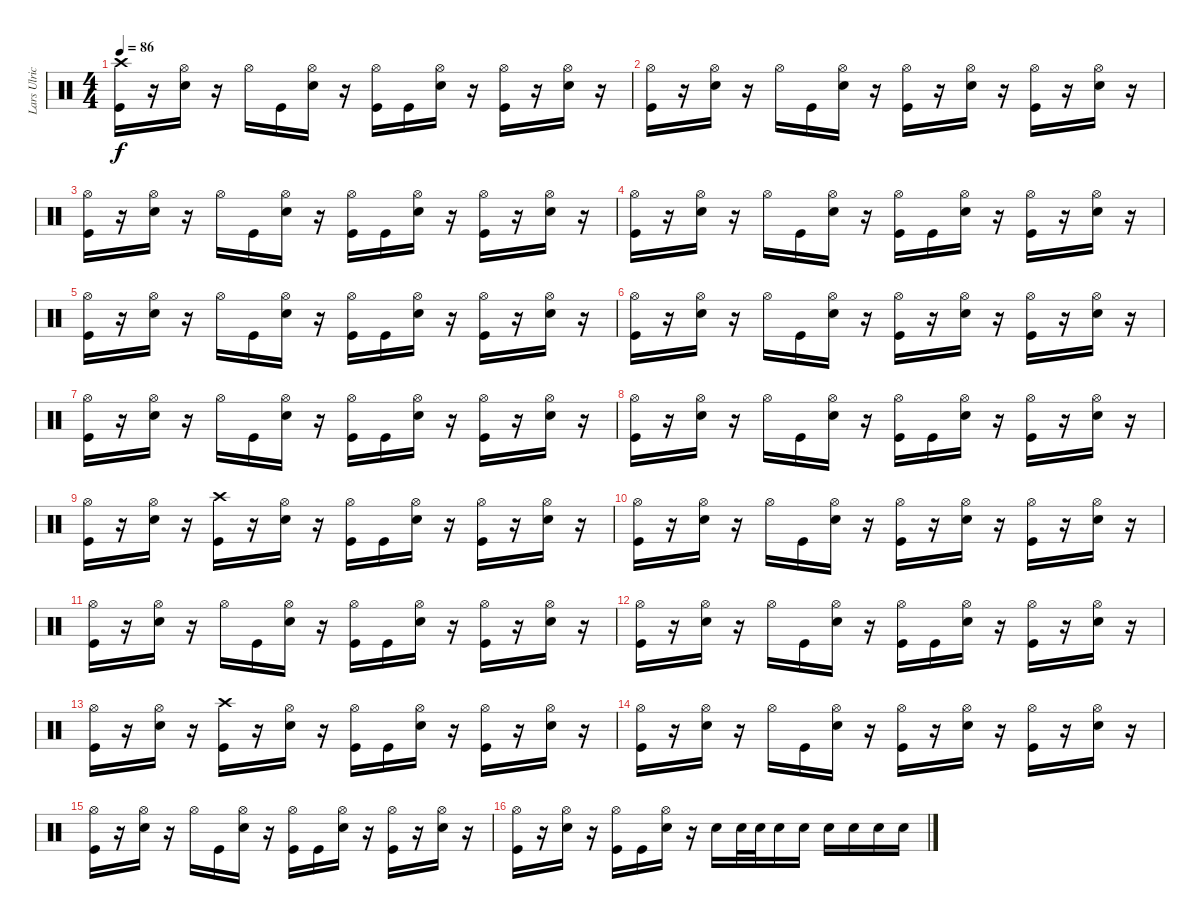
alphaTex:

\track ("Lars Ulrich" "Lars Ulric") {instrument percussion}
\staff {score}
\articulation defaults
\ts (4 4)
\tempo 86
\clef neutral
\ks c
("Crash high (hit)" "Kick (hit)").16{dy f} r.16 ("Hi-Hat (open)" "Snare (hit) 2").16 r.16 "Hi-Hat (open)".16 "Kick (hit)".16 ("Hi-Hat (open)" "Snare (hit) 2").16 r.16 ("Hi-Hat (open)" "Kick (hit)").16 "Kick (hit)".16 ("Hi-Hat (open)" "Snare (hit) 2").16 r.16 ("Hi-Hat (open)" "Kick (hit)").16 r.16 ("Hi-Hat (open)" "Snare (hit) 2").16 r.16 |
("Hi-Hat (open)" "Kick (hit)").16 r.16 ("Hi-Hat (open)" "Snare (hit) 2").16 r.16 "Hi-Hat (open)".16 "Kick (hit)".16 ("Hi-Hat (open)" "Snare (hit) 2").16 r.16 ("Hi-Hat (open)" "Kick (hit)").16 r.16 ("Hi-Hat (open)" "Snare (hit) 2").16 r.16 ("Hi-Hat (open)" "Kick (hit)").16 r.16 ("Hi-Hat (open)" "Snare (hit) 2").16 r.16 |
("Hi-Hat (open)" "Kick (hit)").16 r.16 ("Hi-Hat (open)" "Snare (hit) 2").16 r.16 "Hi-Hat (open)".16 "Kick (hit)".16 ("Hi-Hat (open)" "Snare (hit) 2").16 r.16 ("Hi-Hat (open)" "Kick (hit)").16 "Kick (hit)".16 ("Hi-Hat (open)" "Snare (hit) 2").16 r.16 ("Hi-Hat (open)" "Kick (hit)").16 r.16 ("Hi-Hat (open)" "Snare (hit) 2").16 r.16 |
("Hi-Hat (open)" "Kick (hit)").16 r.16 ("Hi-Hat (open)" "Snare (hit) 2").16 r.16 "Hi-Hat (open)".16 "Kick (hit)".16 ("Hi-Hat (open)" "Snare (hit) 2").16 r.16 ("Hi-Hat (open)" "Kick (hit)").16 "Kick (hit)".16 ("Hi-Hat (open)" "Snare (hit) 2").16 r.16 ("Hi-Hat (open)" "Kick (hit)").16 r.16 ("Hi-Hat (open)" "Snare (hit) 2").16 r.16 |
("Hi-Hat (open)" "Kick (hit)").16 r.16 ("Hi-Hat (open)" "Snare (hit) 2").16 r.16 "Hi-Hat (open)".16 "Kick (hit)".16 ("Hi-Hat (open)" "Snare (hit) 2").16 r.16 ("Hi-Hat (open)" "Kick (hit)").16 "Kick (hit)".16 ("Hi-Hat (open)" "Snare (hit) 2").16 r.16 ("Hi-Hat (open)" "Kick (hit)").16 r.16 ("Hi-Hat (open)" "Snare (hit) 2").16 r.16 |
("Hi-Hat (open)" "Kick (hit)").16 r.16 ("Hi-Hat (open)" "Snare (hit) 2").16 r.16 "Hi-Hat (open)".16 "Kick (hit)".16 ("Hi-Hat (open)" "Snare (hit) 2").16 r.16 ("Hi-Hat (open)" "Kick (hit)").16 r.16 ("Hi-Hat (open)" "Snare (hit) 2").16 r.16 ("Hi-Hat (open)" "Kick (hit)").16 r.16 ("Hi-Hat (open)" "Snare (hit) 2").16 r.16 |
("Hi-Hat (open)" "Kick (hit)").16 r.16 ("Hi-Hat (open)" "Snare (hit) 2").16 r.16 "Hi-Hat (open)".16 "Kick (hit)".16 ("Hi-Hat (open)" "Snare (hit) 2").16 r.16 ("Hi-Hat (open)" "Kick (hit)").16 "Kick (hit)".16 ("Hi-Hat (open)" "Snare (hit) 2").16 r.16 ("Hi-Hat (open)" "Kick (hit)").16 r.16 ("Hi-Hat (open)" "Snare (hit) 2").16 r.16 |
("Hi-Hat (open)" "Kick (hit)").16 r.16 ("Hi-Hat (open)" "Snare (hit) 2").16 r.16 "Hi-Hat (open)".16 "Kick (hit)".16 ("Hi-Hat (open)" "Snare (hit) 2").16 r.16 ("Hi-Hat (open)" "Kick (hit)").16 "Kick (hit)".16 ("Hi-Hat (open)" "Snare (hit) 2").16 r.16 ("Hi-Hat (open)" "Kick (hit)").16 r.16 ("Hi-Hat (open)" "Snare (hit) 2").16 r.16 |
("Hi-Hat (open)" "Kick (hit)").16 r.16 ("Hi-Hat (open)" "Snare (hit) 2").16 r.16 ("Crash high (hit)" "Kick (hit)").16 r.16 ("Hi-Hat (open)" "Snare (hit) 2").16 r.16 ("Hi-Hat (open)" "Kick (hit)").16 "Kick (hit)".16 ("Hi-Hat (open)" "Snare (hit) 2").16 r.16 ("Hi-Hat (open)" "Kick (hit)").16 r.16 ("Hi-Hat (open)" "Snare (hit) 2").16 r.16 |
("Hi-Hat (open)" "Kick (hit)").16 r.16 ("Hi-Hat (open)" "Snare (hit) 2").16 r.16 "Hi-Hat (open)".16 "Kick (hit)".16 ("Hi-Hat (open)" "Snare (hit) 2").16 r.16 ("Hi-Hat (open)" "Kick (hit)").16 r.16 ("Hi-Hat (open)" "Snare (hit) 2").16 r.16 ("Hi-Hat (open)" "Kick (hit)").16 r.16 ("Hi-Hat (open)" "Snare (hit) 2").16 r.16 |
("Hi-Hat (open)" "Kick (hit)").16 r.16 ("Hi-Hat (open)" "Snare (hit) 2").16 r.16 "Hi-Hat (open)".16 "Kick (hit)".16 ("Hi-Hat (open)" "Snare (hit) 2").16 r.16 ("Hi-Hat (open)" "Kick (hit)").16 "Kick (hit)".16 ("Hi-Hat (open)" "Snare (hit) 2").16 r.16 ("Hi-Hat (open)" "Kick (hit)").16 r.16 ("Hi-Hat (open)" "Snare (hit) 2").16 r.16 |
("Hi-Hat (open)" "Kick (hit)").16 r.16 ("Hi-Hat (open)" "Snare (hit) 2").16 r.16 "Hi-Hat (open)".16 "Kick (hit)".16 ("Hi-Hat (open)" "Snare (hit) 2").16 r.16 ("Hi-Hat (open)" "Kick (hit)").16 "Kick (hit)".16 ("Hi-Hat (open)" "Snare (hit) 2").16 r.16 ("Hi-Hat (open)" "Kick (hit)").16 r.16 ("Hi-Hat (open)" "Snare (hit) 2").16 r.16 |
("Hi-Hat (open)" "Kick (hit)").16 r.16 ("Hi-Hat (open)" "Snare (hit) 2").16 r.16 ("Crash high (hit)" "Kick (hit)").16 r.16 ("Hi-Hat (open)" "Snare (hit) 2").16 r.16 ("Hi-Hat (open)" "Kick (hit)").16 "Kick (hit)".16 ("Hi-Hat (open)" "Snare (hit) 2").16 r.16 ("Hi-Hat (open)" "Kick (hit)").16 r.16 ("Hi-Hat (open)" "Snare (hit) 2").16 r.16 |
("Hi-Hat (open)" "Kick (hit)").16 r.16 ("Hi-Hat (open)" "Snare (hit) 2").16 r.16 "Hi-Hat (open)".16 "Kick (hit)".16 ("Hi-Hat (open)" "Snare (hit) 2").16 r.16 ("Hi-Hat (open)" "Kick (hit)").16 r.16 ("Hi-Hat (open)" "Snare (hit) 2").16 r.16 ("Hi-Hat (open)" "Kick (hit)").16 r.16 ("Hi-Hat (open)" "Snare (hit) 2").16 r.16 |
("Hi-Hat (open)" "Kick (hit)").16 r.16 ("Hi-Hat (open)" "Snare (hit) 2").16 r.16 "Hi-Hat (open)".16 "Kick (hit)".16 ("Hi-Hat (open)" "Snare (hit) 2").16 r.16 ("Hi-Hat (open)" "Kick (hit)").16 "Kick (hit)".16 ("Hi-Hat (open)" "Snare (hit) 2").16 r.16 ("Hi-Hat (open)" "Kick (hit)").16 r.16 ("Hi-Hat (open)" "Snare (hit) 2").16 r.16 |
("Hi-Hat (open)" "Kick (hit)").16 r.16 ("Hi-Hat (open)" "Snare (hit) 2").16 r.16 ("Hi-Hat (open)" "Kick (hit)").16 "Kick (hit)".16 ("Hi-Hat (open)" "Snare (hit) 2").16 r.16 "Snare (hit) 2".16 "Snare (hit) 2".32 "Snare (hit) 2".32 "Snare (hit) 2".16 "Snare (hit) 2".16 "Snare (hit) 2".16 "Snare (hit) 2".16 "Snare (hit) 2".16 "Snare (hit) 2".16
